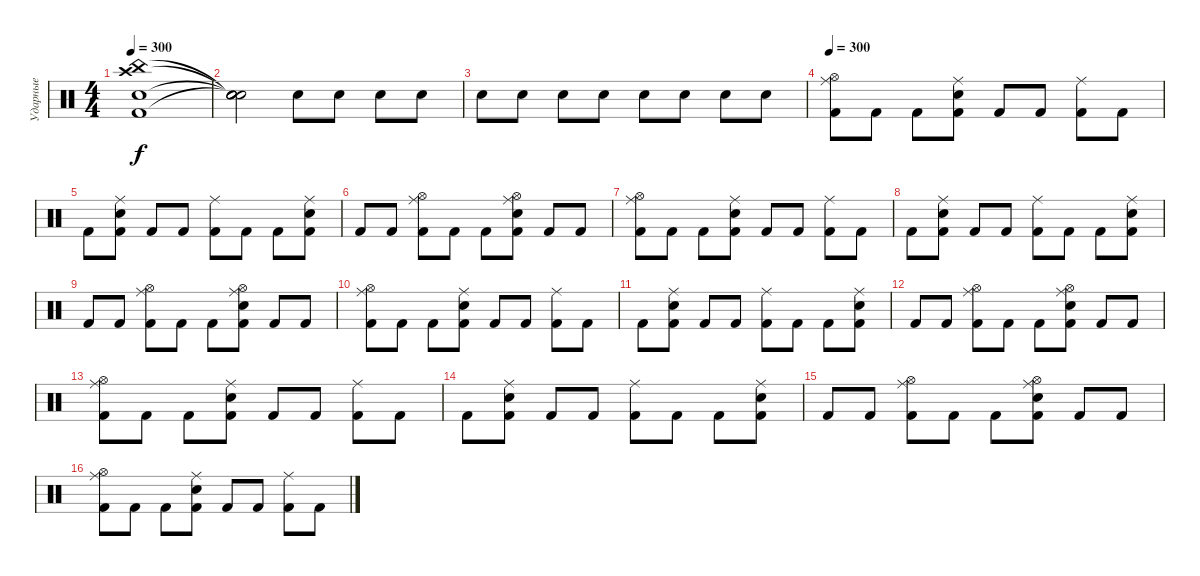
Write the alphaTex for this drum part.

\track ("Ударные" "Ударные") {instrument percussion}
\staff {score}
\articulation defaults
\ts (4 4)
\tempo 300
\clef neutral
\ks c
("Electric Snare (hit)" "Kick (hit) 2" "Crash high (hit)" "China (hit)").1{dy f} |
("Snare (hit)"{t} "Snare (hit)"{t} "Snare (hit)"{t} "Snare (hit)"{t}).2 "Electric Snare (hit)".8 "Electric Snare (hit)".8 "Electric Snare (hit)".8 "Electric Snare (hit)".8 |
"Electric Snare (hit)".8 "Electric Snare (hit)".8 "Electric Snare (hit)".8 "Electric Snare (hit)".8 "Electric Snare (hit)".8 "Electric Snare (hit)".8 "Electric Snare (hit)".8 "Electric Snare (hit)".8 |
\tempo 300
("Ride (middle)" "Hi-Hat (open)" "Kick (hit) 2").8 "Kick (hit) 2".8 "Kick (hit) 2".8 ("Electric Snare (hit)" "Ride (middle)" "Kick (hit) 2").8 "Kick (hit) 2".8 "Kick (hit) 2".8 ("Ride (middle)" "Kick (hit) 2").8 "Kick (hit) 2".8 |
"Kick (hit) 2".8 ("Kick (hit) 2" "Electric Snare (hit)" "Ride (middle)").8 "Kick (hit) 2".8 "Kick (hit) 2".8 ("Kick (hit) 2" "Ride (middle)").8 "Kick (hit) 2".8 "Kick (hit) 2".8 ("Kick (hit) 2" "Electric Snare (hit)" "Ride (middle)").8 |
"Kick (hit) 2".8 "Kick (hit) 2".8 ("Kick (hit) 2" "Ride (middle)" "Hi-Hat (open)").8 "Kick (hit) 2".8 "Kick (hit) 2".8 ("Kick (hit) 2" "Electric Snare (hit)" "Ride (middle)" "Hi-Hat (open)").8 "Kick (hit) 2".8 "Kick (hit) 2".8 |
("Ride (middle)" "Hi-Hat (open)" "Kick (hit) 2").8 "Kick (hit) 2".8 "Kick (hit) 2".8 ("Electric Snare (hit)" "Ride (middle)" "Kick (hit) 2").8 "Kick (hit) 2".8 "Kick (hit) 2".8 ("Ride (middle)" "Kick (hit) 2").8 "Kick (hit) 2".8 |
"Kick (hit) 2".8 ("Kick (hit) 2" "Electric Snare (hit)" "Ride (middle)").8 "Kick (hit) 2".8 "Kick (hit) 2".8 ("Kick (hit) 2" "Ride (middle)").8 "Kick (hit) 2".8 "Kick (hit) 2".8 ("Kick (hit) 2" "Electric Snare (hit)" "Ride (middle)").8 |
"Kick (hit) 2".8 "Kick (hit) 2".8 ("Kick (hit) 2" "Ride (middle)" "Hi-Hat (open)").8 "Kick (hit) 2".8 "Kick (hit) 2".8 ("Kick (hit) 2" "Electric Snare (hit)" "Ride (middle)" "Hi-Hat (open)").8 "Kick (hit) 2".8 "Kick (hit) 2".8 |
("Ride (middle)" "Hi-Hat (open)" "Kick (hit) 2").8 "Kick (hit) 2".8 "Kick (hit) 2".8 ("Electric Snare (hit)" "Ride (middle)" "Kick (hit) 2").8 "Kick (hit) 2".8 "Kick (hit) 2".8 ("Ride (middle)" "Kick (hit) 2").8 "Kick (hit) 2".8 |
"Kick (hit) 2".8 ("Kick (hit) 2" "Electric Snare (hit)" "Ride (middle)").8 "Kick (hit) 2".8 "Kick (hit) 2".8 ("Kick (hit) 2" "Ride (middle)").8 "Kick (hit) 2".8 "Kick (hit) 2".8 ("Kick (hit) 2" "Electric Snare (hit)" "Ride (middle)").8 |
"Kick (hit) 2".8 "Kick (hit) 2".8 ("Kick (hit) 2" "Ride (middle)" "Hi-Hat (open)").8 "Kick (hit) 2".8 "Kick (hit) 2".8 ("Kick (hit) 2" "Electric Snare (hit)" "Ride (middle)" "Hi-Hat (open)").8 "Kick (hit) 2".8 "Kick (hit) 2".8 |
("Ride (middle)" "Hi-Hat (open)" "Kick (hit) 2").8 "Kick (hit) 2".8 "Kick (hit) 2".8 ("Electric Snare (hit)" "Ride (middle)" "Kick (hit) 2").8 "Kick (hit) 2".8 "Kick (hit) 2".8 ("Ride (middle)" "Kick (hit) 2").8 "Kick (hit) 2".8 |
"Kick (hit) 2".8 ("Kick (hit) 2" "Electric Snare (hit)" "Ride (middle)").8 "Kick (hit) 2".8 "Kick (hit) 2".8 ("Kick (hit) 2" "Ride (middle)").8 "Kick (hit) 2".8 "Kick (hit) 2".8 ("Kick (hit) 2" "Electric Snare (hit)" "Ride (middle)").8 |
"Kick (hit) 2".8 "Kick (hit) 2".8 ("Kick (hit) 2" "Ride (middle)" "Hi-Hat (open)").8 "Kick (hit) 2".8 "Kick (hit) 2".8 ("Kick (hit) 2" "Electric Snare (hit)" "Ride (middle)" "Hi-Hat (open)").8 "Kick (hit) 2".8 "Kick (hit) 2".8 |
("Ride (middle)" "Hi-Hat (open)" "Kick (hit) 2").8 "Kick (hit) 2".8 "Kick (hit) 2".8 ("Electric Snare (hit)" "Ride (middle)" "Kick (hit) 2").8 "Kick (hit) 2".8 "Kick (hit) 2".8 ("Ride (middle)" "Kick (hit) 2").8 "Kick (hit) 2".8
